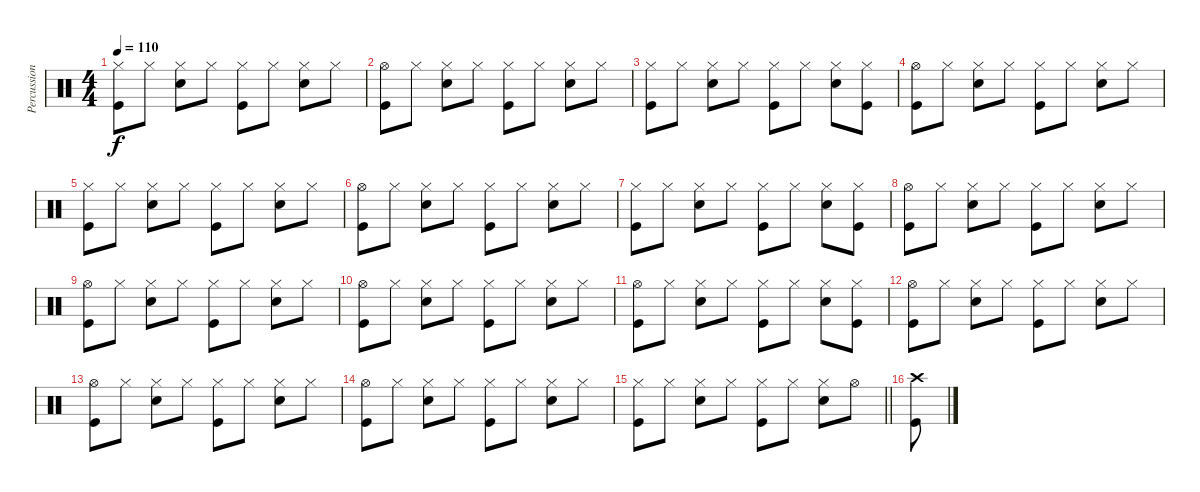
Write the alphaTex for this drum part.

\track ("Percussion" "Percussion") {instrument percussion}
\staff {score}
\articulation defaults
\ts (4 4)
\tempo 110
\clef neutral
\ks c
("Hi-Hat (closed)" "Kick (hit)").8{dy f} "Hi-Hat (closed)".8 ("Hi-Hat (closed)" "Snare (hit) 2").8 "Hi-Hat (closed)".8 ("Hi-Hat (closed)" "Kick (hit)").8 "Hi-Hat (closed)".8 ("Hi-Hat (closed)" "Snare (hit) 2").8 "Hi-Hat (closed)".8 |
("Hi-Hat (open)" "Kick (hit)").8 "Hi-Hat (closed)".8 ("Hi-Hat (closed)" "Snare (hit) 2").8 "Hi-Hat (closed)".8 ("Hi-Hat (closed)" "Kick (hit)").8 "Hi-Hat (closed)".8 ("Hi-Hat (closed)" "Snare (hit) 2").8 "Hi-Hat (closed)".8 |
("Hi-Hat (closed)" "Kick (hit)").8 "Hi-Hat (closed)".8 ("Hi-Hat (closed)" "Snare (hit) 2").8 "Hi-Hat (closed)".8 ("Hi-Hat (closed)" "Kick (hit)").8 "Hi-Hat (closed)".8 ("Hi-Hat (closed)" "Snare (hit) 2").8 ("Hi-Hat (closed)" "Kick (hit)").8 |
("Hi-Hat (open)" "Kick (hit)").8 "Hi-Hat (closed)".8 ("Hi-Hat (closed)" "Snare (hit) 2").8 "Hi-Hat (closed)".8 ("Hi-Hat (closed)" "Kick (hit)").8 "Hi-Hat (closed)".8 ("Hi-Hat (closed)" "Snare (hit) 2").8 "Hi-Hat (closed)".8 |
("Hi-Hat (closed)" "Kick (hit)").8 "Hi-Hat (closed)".8 ("Hi-Hat (closed)" "Snare (hit) 2").8 "Hi-Hat (closed)".8 ("Hi-Hat (closed)" "Kick (hit)").8 "Hi-Hat (closed)".8 ("Hi-Hat (closed)" "Snare (hit) 2").8 "Hi-Hat (closed)".8 |
("Hi-Hat (open)" "Kick (hit)").8 "Hi-Hat (closed)".8 ("Hi-Hat (closed)" "Snare (hit) 2").8 "Hi-Hat (closed)".8 ("Hi-Hat (closed)" "Kick (hit)").8 "Hi-Hat (closed)".8 ("Hi-Hat (closed)" "Snare (hit) 2").8 "Hi-Hat (closed)".8 |
("Hi-Hat (closed)" "Kick (hit)").8 "Hi-Hat (closed)".8 ("Hi-Hat (closed)" "Snare (hit) 2").8 "Hi-Hat (closed)".8 ("Hi-Hat (closed)" "Kick (hit)").8 "Hi-Hat (closed)".8 ("Hi-Hat (closed)" "Snare (hit) 2").8 ("Hi-Hat (closed)" "Kick (hit)").8 |
("Hi-Hat (open)" "Kick (hit)").8 "Hi-Hat (closed)".8 ("Hi-Hat (closed)" "Snare (hit) 2").8 "Hi-Hat (closed)".8 ("Hi-Hat (closed)" "Kick (hit)").8 "Hi-Hat (closed)".8 ("Hi-Hat (closed)" "Snare (hit) 2").8 "Hi-Hat (closed)".8 |
("Hi-Hat (open)" "Kick (hit)").8 "Hi-Hat (closed)".8 ("Hi-Hat (closed)" "Snare (hit) 2").8 "Hi-Hat (closed)".8 ("Hi-Hat (closed)" "Kick (hit)").8 "Hi-Hat (closed)".8 ("Hi-Hat (closed)" "Snare (hit) 2").8 "Hi-Hat (closed)".8 |
("Hi-Hat (open)" "Kick (hit)").8 "Hi-Hat (closed)".8 ("Hi-Hat (closed)" "Snare (hit) 2").8 "Hi-Hat (closed)".8 ("Hi-Hat (closed)" "Kick (hit)").8 "Hi-Hat (closed)".8 ("Hi-Hat (closed)" "Snare (hit) 2").8 "Hi-Hat (closed)".8 |
("Hi-Hat (open)" "Kick (hit)").8 "Hi-Hat (closed)".8 ("Hi-Hat (closed)" "Snare (hit) 2").8 "Hi-Hat (closed)".8 ("Hi-Hat (closed)" "Kick (hit)").8 "Hi-Hat (closed)".8 ("Hi-Hat (closed)" "Snare (hit) 2").8 ("Hi-Hat (closed)" "Kick (hit)").8 |
("Hi-Hat (open)" "Kick (hit)").8 "Hi-Hat (closed)".8 ("Hi-Hat (closed)" "Snare (hit) 2").8 "Hi-Hat (closed)".8 ("Hi-Hat (closed)" "Kick (hit)").8 "Hi-Hat (closed)".8 ("Hi-Hat (closed)" "Snare (hit) 2").8 "Hi-Hat (closed)".8 |
("Hi-Hat (open)" "Kick (hit)").8 "Hi-Hat (closed)".8 ("Hi-Hat (closed)" "Snare (hit) 2").8 "Hi-Hat (closed)".8 ("Hi-Hat (closed)" "Kick (hit)").8 "Hi-Hat (closed)".8 ("Hi-Hat (closed)" "Snare (hit) 2").8 "Hi-Hat (closed)".8 |
("Hi-Hat (open)" "Kick (hit)").8 "Hi-Hat (closed)".8 ("Hi-Hat (closed)" "Snare (hit) 2").8 "Hi-Hat (closed)".8 ("Hi-Hat (closed)" "Kick (hit)").8 "Hi-Hat (closed)".8 ("Hi-Hat (closed)" "Snare (hit) 2").8 "Hi-Hat (closed)".8 |
\barLineRight lightlight
("Hi-Hat (closed)" "Kick (hit)").8 "Hi-Hat (closed)".8 ("Hi-Hat (closed)" "Snare (hit) 2").8 "Hi-Hat (closed)".8 ("Hi-Hat (closed)" "Kick (hit)").8 "Hi-Hat (closed)".8 ("Hi-Hat (closed)" "Snare (hit) 2").8 "Hi-Hat (open)".8 |
("Crash high (hit)" "Kick (hit)").8
